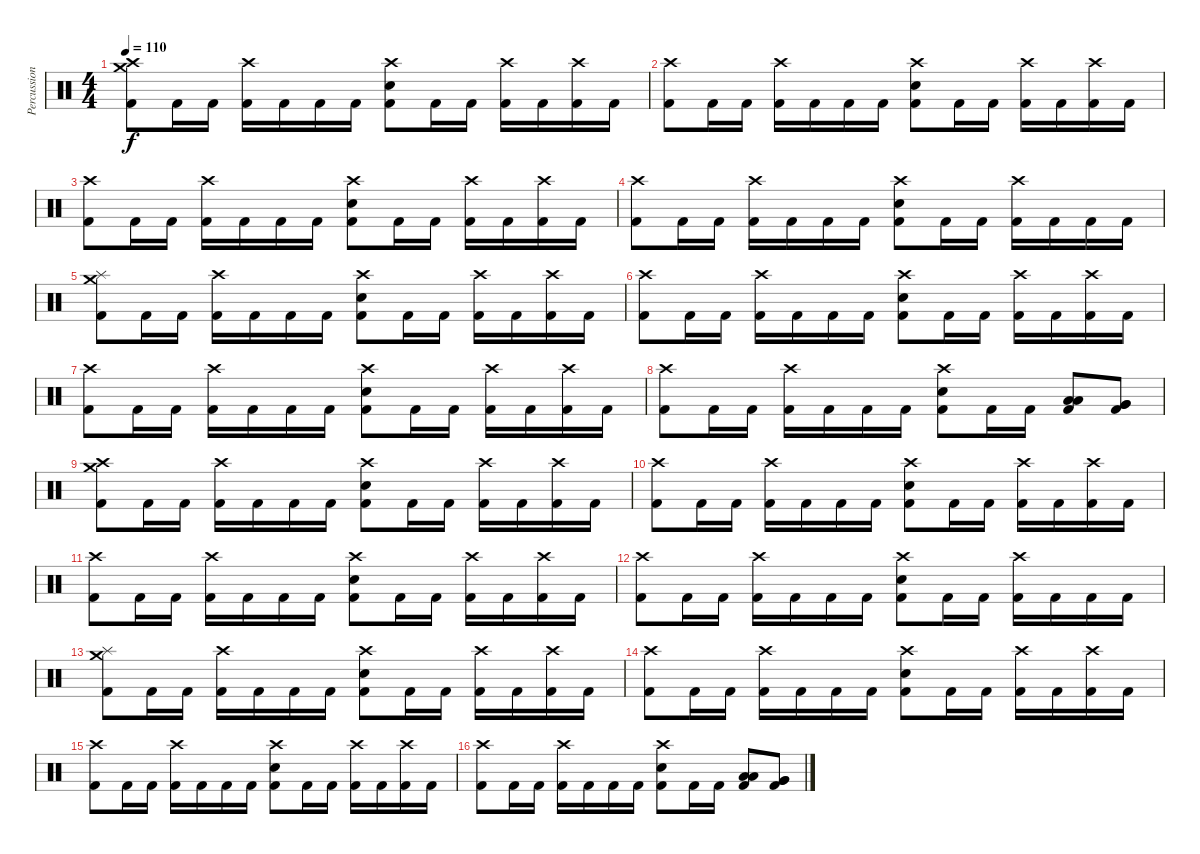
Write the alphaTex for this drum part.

\track ("Percussions" "Percussion") {instrument percussion}
\staff {score}
\articulation defaults
\ts (4 4)
\tempo 110
\clef neutral
\ks c
("Crash high (hit)" "Crash medium (hit)" "Kick (hit) 2").8{dy f} "Kick (hit) 2".16 "Kick (hit) 2".16 ("Crash high (hit)" "Kick (hit) 2").16 "Kick (hit) 2".16 "Kick (hit) 2".16 "Kick (hit) 2".16 ("Crash high (hit)" "Electric Snare (hit)" "Kick (hit) 2").8 "Kick (hit) 2".16 "Kick (hit) 2".16 ("Crash high (hit)" "Kick (hit) 2").16 "Kick (hit) 2".16 ("Crash high (hit)" "Kick (hit) 2").16 "Kick (hit) 2".16 |
("Crash high (hit)" "Kick (hit) 2").8 "Kick (hit) 2".16 "Kick (hit) 2".16 ("Crash high (hit)" "Kick (hit) 2").16 "Kick (hit) 2".16 "Kick (hit) 2".16 "Kick (hit) 2".16 ("Crash high (hit)" "Electric Snare (hit)" "Kick (hit) 2").8 "Kick (hit) 2".16 "Kick (hit) 2".16 ("Crash high (hit)" "Kick (hit) 2").16 "Kick (hit) 2".16 ("Crash high (hit)" "Kick (hit) 2").16 "Kick (hit) 2".16 |
("Crash high (hit)" "Kick (hit) 2").8 "Kick (hit) 2".16 "Kick (hit) 2".16 ("Crash high (hit)" "Kick (hit) 2").16 "Kick (hit) 2".16 "Kick (hit) 2".16 "Kick (hit) 2".16 ("Crash high (hit)" "Electric Snare (hit)" "Kick (hit) 2").8 "Kick (hit) 2".16 "Kick (hit) 2".16 ("Crash high (hit)" "Kick (hit) 2").16 "Kick (hit) 2".16 ("Crash high (hit)" "Kick (hit) 2").16 "Kick (hit) 2".16 |
("Crash high (hit)" "Kick (hit) 2").8 "Kick (hit) 2".16 "Kick (hit) 2".16 ("Crash high (hit)" "Kick (hit) 2").16 "Kick (hit) 2".16 "Kick (hit) 2".16 "Kick (hit) 2".16 ("Crash high (hit)" "Electric Snare (hit)" "Kick (hit) 2").8 "Kick (hit) 2".16 "Kick (hit) 2".16 ("Crash high (hit)" "Kick (hit) 2").16 "Kick (hit) 2".16 "Kick (hit) 2".16 "Kick (hit) 2".16 |
("Splash (hit)" "Crash medium (hit)" "Kick (hit) 2").8 "Kick (hit) 2".16 "Kick (hit) 2".16 ("Crash high (hit)" "Kick (hit) 2").16 "Kick (hit) 2".16 "Kick (hit) 2".16 "Kick (hit) 2".16 ("Crash high (hit)" "Electric Snare (hit)" "Kick (hit) 2").8 "Kick (hit) 2".16 "Kick (hit) 2".16 ("Crash high (hit)" "Kick (hit) 2").16 "Kick (hit) 2".16 ("Crash high (hit)" "Kick (hit) 2").16 "Kick (hit) 2".16 |
("Crash high (hit)" "Kick (hit) 2").8 "Kick (hit) 2".16 "Kick (hit) 2".16 ("Crash high (hit)" "Kick (hit) 2").16 "Kick (hit) 2".16 "Kick (hit) 2".16 "Kick (hit) 2".16 ("Crash high (hit)" "Electric Snare (hit)" "Kick (hit) 2").8 "Kick (hit) 2".16 "Kick (hit) 2".16 ("Crash high (hit)" "Kick (hit) 2").16 "Kick (hit) 2".16 ("Crash high (hit)" "Kick (hit) 2").16 "Kick (hit) 2".16 |
("Crash high (hit)" "Kick (hit) 2").8 "Kick (hit) 2".16 "Kick (hit) 2".16 ("Crash high (hit)" "Kick (hit) 2").16 "Kick (hit) 2".16 "Kick (hit) 2".16 "Kick (hit) 2".16 ("Crash high (hit)" "Electric Snare (hit)" "Kick (hit) 2").8 "Kick (hit) 2".16 "Kick (hit) 2".16 ("Crash high (hit)" "Kick (hit) 2").16 "Kick (hit) 2".16 ("Crash high (hit)" "Kick (hit) 2").16 "Kick (hit) 2".16 |
("Crash high (hit)" "Kick (hit) 2").8 "Kick (hit) 2".16 "Kick (hit) 2".16 ("Crash high (hit)" "Kick (hit) 2").16 "Kick (hit) 2".16 "Kick (hit) 2".16 "Kick (hit) 2".16 ("Crash high (hit)" "Electric Snare (hit)" "Kick (hit) 2").8 "Kick (hit) 2".16 "Kick (hit) 2".16 ("Low Tom (hit)" "Low Tom (hit)" "Kick (hit) 2").8 ("Very Low Tom (hit)" "Very Low Tom (hit)" "Kick (hit) 2").8 |
("Crash high (hit)" "Crash medium (hit)" "Kick (hit) 2").8 "Kick (hit) 2".16 "Kick (hit) 2".16 ("Crash high (hit)" "Kick (hit) 2").16 "Kick (hit) 2".16 "Kick (hit) 2".16 "Kick (hit) 2".16 ("Crash high (hit)" "Electric Snare (hit)" "Kick (hit) 2").8 "Kick (hit) 2".16 "Kick (hit) 2".16 ("Crash high (hit)" "Kick (hit) 2").16 "Kick (hit) 2".16 ("Crash high (hit)" "Kick (hit) 2").16 "Kick (hit) 2".16 |
("Crash high (hit)" "Kick (hit) 2").8 "Kick (hit) 2".16 "Kick (hit) 2".16 ("Crash high (hit)" "Kick (hit) 2").16 "Kick (hit) 2".16 "Kick (hit) 2".16 "Kick (hit) 2".16 ("Crash high (hit)" "Electric Snare (hit)" "Kick (hit) 2").8 "Kick (hit) 2".16 "Kick (hit) 2".16 ("Crash high (hit)" "Kick (hit) 2").16 "Kick (hit) 2".16 ("Crash high (hit)" "Kick (hit) 2").16 "Kick (hit) 2".16 |
("Crash high (hit)" "Kick (hit) 2").8 "Kick (hit) 2".16 "Kick (hit) 2".16 ("Crash high (hit)" "Kick (hit) 2").16 "Kick (hit) 2".16 "Kick (hit) 2".16 "Kick (hit) 2".16 ("Crash high (hit)" "Electric Snare (hit)" "Kick (hit) 2").8 "Kick (hit) 2".16 "Kick (hit) 2".16 ("Crash high (hit)" "Kick (hit) 2").16 "Kick (hit) 2".16 ("Crash high (hit)" "Kick (hit) 2").16 "Kick (hit) 2".16 |
("Crash high (hit)" "Kick (hit) 2").8 "Kick (hit) 2".16 "Kick (hit) 2".16 ("Crash high (hit)" "Kick (hit) 2").16 "Kick (hit) 2".16 "Kick (hit) 2".16 "Kick (hit) 2".16 ("Crash high (hit)" "Electric Snare (hit)" "Kick (hit) 2").8 "Kick (hit) 2".16 "Kick (hit) 2".16 ("Crash high (hit)" "Kick (hit) 2").16 "Kick (hit) 2".16 "Kick (hit) 2".16 "Kick (hit) 2".16 |
("Splash (hit)" "Crash medium (hit)" "Kick (hit) 2").8 "Kick (hit) 2".16 "Kick (hit) 2".16 ("Crash high (hit)" "Kick (hit) 2").16 "Kick (hit) 2".16 "Kick (hit) 2".16 "Kick (hit) 2".16 ("Crash high (hit)" "Electric Snare (hit)" "Kick (hit) 2").8 "Kick (hit) 2".16 "Kick (hit) 2".16 ("Crash high (hit)" "Kick (hit) 2").16 "Kick (hit) 2".16 ("Crash high (hit)" "Kick (hit) 2").16 "Kick (hit) 2".16 |
("Crash high (hit)" "Kick (hit) 2").8 "Kick (hit) 2".16 "Kick (hit) 2".16 ("Crash high (hit)" "Kick (hit) 2").16 "Kick (hit) 2".16 "Kick (hit) 2".16 "Kick (hit) 2".16 ("Crash high (hit)" "Electric Snare (hit)" "Kick (hit) 2").8 "Kick (hit) 2".16 "Kick (hit) 2".16 ("Crash high (hit)" "Kick (hit) 2").16 "Kick (hit) 2".16 ("Crash high (hit)" "Kick (hit) 2").16 "Kick (hit) 2".16 |
("Crash high (hit)" "Kick (hit) 2").8 "Kick (hit) 2".16 "Kick (hit) 2".16 ("Crash high (hit)" "Kick (hit) 2").16 "Kick (hit) 2".16 "Kick (hit) 2".16 "Kick (hit) 2".16 ("Crash high (hit)" "Electric Snare (hit)" "Kick (hit) 2").8 "Kick (hit) 2".16 "Kick (hit) 2".16 ("Crash high (hit)" "Kick (hit) 2").16 "Kick (hit) 2".16 ("Crash high (hit)" "Kick (hit) 2").16 "Kick (hit) 2".16 |
("Crash high (hit)" "Kick (hit) 2").8 "Kick (hit) 2".16 "Kick (hit) 2".16 ("Crash high (hit)" "Kick (hit) 2").16 "Kick (hit) 2".16 "Kick (hit) 2".16 "Kick (hit) 2".16 ("Crash high (hit)" "Electric Snare (hit)" "Kick (hit) 2").8 "Kick (hit) 2".16 "Kick (hit) 2".16 ("Low Tom (hit)" "Low Tom (hit)" "Kick (hit) 2").8 ("Very Low Tom (hit)" "Very Low Tom (hit)" "Kick (hit) 2").8
